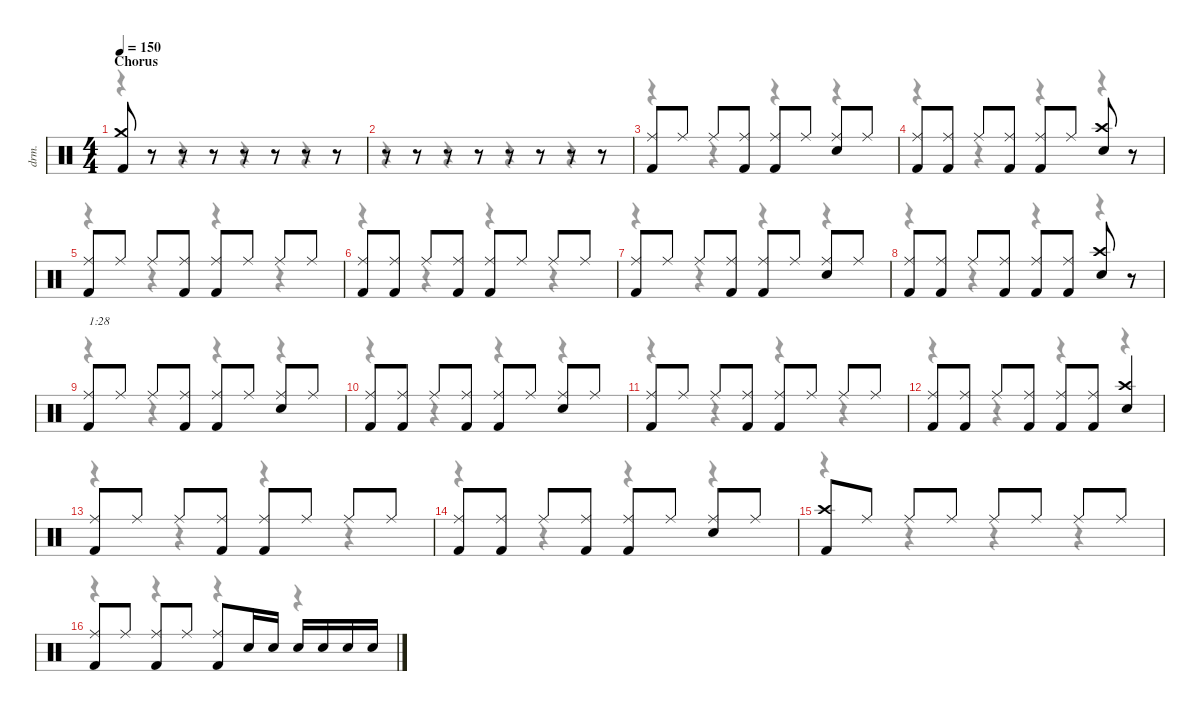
\defaultSystemsLayout 4
\hideDynamics
\bracketExtendMode nobrackets
\otherSystemsTrackNameOrientation horizontal
\track ("Drums" "drm.") {instrument percussion}
\staff {score}
\articulation defaults
\voice
\ts (4 4)
\section ("" "Chorus")
\tempo 150
\clef neutral
\ks c
("Crash medium (hit)" "Kick (hit) 2").8{dy fff beam Up} r.8{beam Up} r.8{beam Up} r.8{beam Up} r.8{beam Up} r.8{beam Up} r.8{beam Up} r.8{beam Up} |
r.8{beam Up} r.8{beam Up} r.8{beam Up} r.8{beam Up} r.8{beam Up} r.8{beam Up} r.8{beam Up} r.8{beam Up} |
("Ride (middle)" "Kick (hit) 2").8{beam Up} "Ride (middle)".8{dy f beam Up} "Ride (middle)".8{beam Up} ("Ride (middle)" "Kick (hit) 2").8{beam Up} ("Ride (middle)" "Kick (hit) 2").8{beam Up} "Ride (middle)".8{beam Up} ("Ride (middle)" "Snare (hit) 2").8{beam Up} "Ride (middle)".8{beam Up} |
("Ride (middle)" "Kick (hit) 2").8{beam Up} ("Ride (middle)" "Kick (hit) 2").8{beam Up} "Ride (middle)".8{beam Up} ("Ride (middle)" "Kick (hit) 2").8{beam Up} ("Ride (middle)" "Kick (hit) 2").8{beam Up} "Ride (middle)".8{beam Up} ("Crash high (hit)" "Snare (hit) 2").8{dy fff beam Up} r.8{beam Up} |
("Ride (middle)" "Kick (hit) 2").8{dy f beam Up} "Ride (middle)".8{beam Up} "Ride (middle)".8{beam Up} ("Ride (middle)" "Kick (hit) 2").8{beam Up} ("Ride (middle)" "Kick (hit) 2").8{beam Up} "Ride (middle)".8{beam Up} "Ride (middle)".8{beam Up} "Ride (middle)".8{beam Up} |
("Ride (middle)" "Kick (hit) 2").8{beam Up} ("Ride (middle)" "Kick (hit) 2").8{beam Up} "Ride (middle)".8{beam Up} ("Ride (middle)" "Kick (hit) 2").8{beam Up} ("Ride (middle)" "Kick (hit) 2").8{beam Up} "Ride (middle)".8{beam Up} "Ride (middle)".8{beam Up} "Ride (middle)".8{beam Up} |
("Ride (middle)" "Kick (hit) 2").8{beam Up} "Ride (middle)".8{beam Up} "Ride (middle)".8{beam Up} ("Ride (middle)" "Kick (hit) 2").8{beam Up} ("Ride (middle)" "Kick (hit) 2").8{beam Up} "Ride (middle)".8{beam Up} ("Ride (middle)" "Snare (hit) 2").8{beam Up} "Ride (middle)".8{beam Up} |
("Ride (middle)" "Kick (hit) 2").8{beam Up} ("Ride (middle)" "Kick (hit) 2").8{beam Up} "Ride (middle)".8{beam Up} ("Ride (middle)" "Kick (hit) 2").8{beam Up} ("Ride (middle)" "Kick (hit) 2").8{beam Up} ("Ride (middle)" "Kick (hit) 2").8{beam Up} ("Crash high (hit)" "Snare (hit) 2").8{dy fff beam Up} r.8{beam Up} |
("Ride (middle)" "Kick (hit) 2").8{txt "1:28" dy f beam Up} "Ride (middle)".8{beam Up} "Ride (middle)".8{beam Up} ("Ride (middle)" "Kick (hit) 2").8{beam Up} ("Ride (middle)" "Kick (hit) 2").8{beam Up} "Ride (middle)".8{beam Up} ("Ride (middle)" "Snare (hit) 2").8{beam Up} "Ride (middle)".8{beam Up} |
("Ride (middle)" "Kick (hit) 2").8{beam Up} ("Ride (middle)" "Kick (hit) 2").8{beam Up} "Ride (middle)".8{beam Up} ("Ride (middle)" "Kick (hit) 2").8{beam Up} ("Ride (middle)" "Kick (hit) 2").8{beam Up} "Ride (middle)".8{beam Up} ("Ride (middle)" "Snare (hit) 2").8{beam Up} "Ride (middle)".8{beam Up} |
("Ride (middle)" "Kick (hit) 2").8{beam Up} "Ride (middle)".8{beam Up} "Ride (middle)".8{beam Up} ("Ride (middle)" "Kick (hit) 2").8{beam Up} ("Ride (middle)" "Kick (hit) 2").8{beam Up} "Ride (middle)".8{beam Up} "Ride (middle)".8{beam Up} "Ride (middle)".8{beam Up} |
("Ride (middle)" "Kick (hit) 2").8{beam Up} ("Ride (middle)" "Kick (hit) 2").8{beam Up} "Ride (middle)".8{beam Up} ("Ride (middle)" "Kick (hit) 2").8{beam Up} ("Ride (middle)" "Kick (hit) 2").8{beam Up} ("Ride (middle)" "Kick (hit) 2").8{beam Up} ("Crash high (hit)" "Snare (hit) 2").4{dy fff beam Up} |
("Ride (middle)" "Kick (hit) 2").8{dy f beam Up} "Ride (middle)".8{beam Up} "Ride (middle)".8{beam Up} ("Ride (middle)" "Kick (hit) 2").8{beam Up} ("Ride (middle)" "Kick (hit) 2").8{beam Up} "Ride (middle)".8{beam Up} "Ride (middle)".8{beam Up} "Ride (middle)".8{beam Up} |
("Ride (middle)" "Kick (hit) 2").8{beam Up} ("Ride (middle)" "Kick (hit) 2").8{beam Up} "Ride (middle)".8{beam Up} ("Ride (middle)" "Kick (hit) 2").8{beam Up} ("Ride (middle)" "Kick (hit) 2").8{beam Up} "Ride (middle)".8{beam Up} ("Ride (middle)" "Snare (hit) 2").8{beam Up} "Ride (middle)".8{beam Up} |
("Crash high (hit)" "Kick (hit) 2").8{dy fff beam Up} "Ride (middle)".8{dy f beam Up} "Ride (middle)".8{beam Up} "Ride (middle)".8{beam Up} "Ride (middle)".8{beam Up} "Ride (middle)".8{beam Up} "Ride (middle)".8{beam Up} "Ride (middle)".8{beam Up} |
("Ride (middle)" "Kick (hit) 2").8{beam Up} "Ride (middle)".8{beam Up} ("Ride (middle)" "Kick (hit) 2").8{beam Up} "Ride (middle)".8{beam Up} ("Ride (middle)" "Kick (hit) 2").8{beam Up} "Snare (hit) 2".16{dy fff beam Up} "Snare (hit) 2".16{beam Up} "Snare (hit) 2".16{beam Up} "Snare (hit) 2".16{beam Up} "Snare (hit) 2".16{beam Up} "Snare (hit) 2".16{beam Up}
\voice
\clef neutral
\ottava regular
\simile none
\ks c
r.4{dy mf beam Down} r.4{beam Down} r.4{beam Down} r.4{beam Down} |
r.4{beam Down} r.4{beam Down} r.4{beam Down} r.4{beam Down} |
r.4{beam Down} r.4{beam Down} r.4{beam Down} r.4{beam Down} |
r.4{beam Down} r.4{beam Down} r.4{beam Down} r.4{beam Down} |
r.4{beam Down} r.4{beam Down} r.4{beam Down} r.4{beam Down} |
r.4{beam Down} r.4{beam Down} r.4{beam Down} r.4{beam Down} |
r.4{beam Down} r.4{beam Down} r.4{beam Down} r.4{beam Down} |
r.4{beam Down} r.4{beam Down} r.4{beam Down} r.4{beam Down} |
r.4{beam Down} r.4{beam Down} r.4{beam Down} r.4{beam Down} |
r.4{beam Down} r.4{beam Down} r.4{beam Down} r.4{beam Down} |
r.4{beam Down} r.4{beam Down} r.4{beam Down} r.4{beam Down} |
r.4{beam Down} r.4{beam Down} r.4{beam Down} r.4{beam Down} |
r.4{beam Down} r.4{beam Down} r.4{beam Down} r.4{beam Down} |
r.4{beam Down} r.4{beam Down} r.4{beam Down} r.4{beam Down} |
r.4{beam Down} r.4{beam Down} r.4{beam Down} r.4{beam Down} |
r.4{beam Down} r.4{beam Down} r.4{beam Down} r.4{beam Down}
